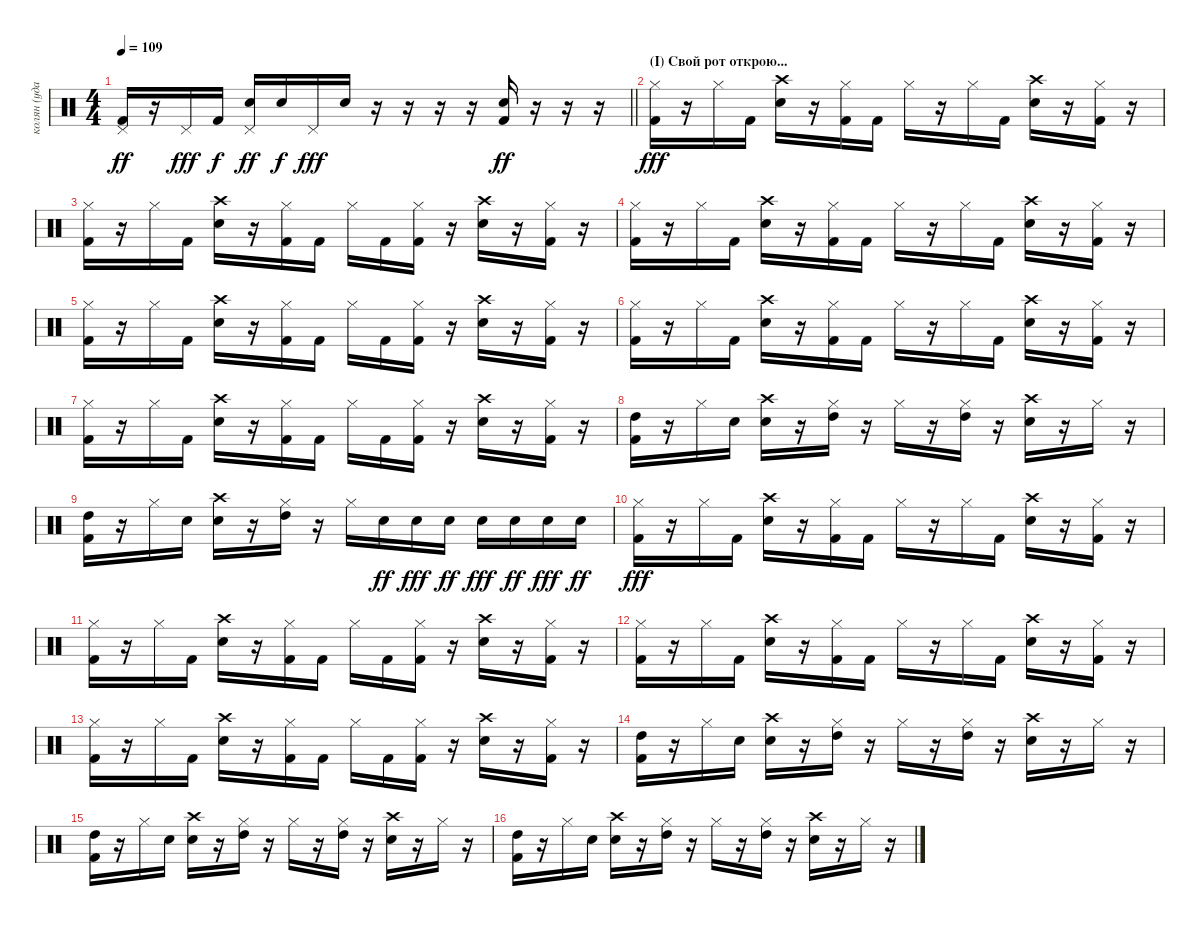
\track ("колян (ударные) v2.0" "колян (уда") {instrument percussion}
\staff
\articulation defaults
\ts (4 4)
\tempo 109
\clef neutral
\barLineRight lightlight
\ks c
("Pedal Hi-Hat (hit)" "Kick (hit) 2").16{dy ff} r.16 "Pedal Hi-Hat (hit)".16{dy fff} "Kick (hit) 2".16{dy f} ("Snare (hit) 2" "Pedal Hi-Hat (hit)").16{dy ff} "Snare (hit) 2".16{dy f} "Pedal Hi-Hat (hit)".16{dy fff} "Snare (hit) 2".16 r.16 r.16 r.16 r.16 ("Snare (hit) 2" "Kick (hit) 2").16{dy ff} r.16 r.16 r.16 |
\section ("" "(I) Свой рот открою...")
("Hi-Hat (closed)" "Kick (hit) 2").16{dy fff} r.16 "Hi-Hat (closed)".16 "Kick (hit) 2".16 ("Snare (hit) 2" "Crash high (hit)").16 r.16 ("Hi-Hat (closed)" "Kick (hit) 2").16 "Kick (hit) 2".16 "Hi-Hat (closed)".16 r.16 "Hi-Hat (closed)".16 "Kick (hit) 2".16 ("Snare (hit) 2" "Crash high (hit)").16 r.16 ("Hi-Hat (closed)" "Kick (hit) 2").16 r.16 |
("Hi-Hat (closed)" "Kick (hit) 2").16 r.16 "Hi-Hat (closed)".16 "Kick (hit) 2".16 ("Snare (hit) 2" "Crash high (hit)").16 r.16 ("Hi-Hat (closed)" "Kick (hit) 2").16 "Kick (hit) 2".16 "Hi-Hat (closed)".16 "Kick (hit) 2".16 ("Hi-Hat (closed)" "Kick (hit) 2").16 r.16 ("Snare (hit) 2" "Crash high (hit)").16 r.16 ("Hi-Hat (closed)" "Kick (hit) 2").16 r.16 |
("Hi-Hat (closed)" "Kick (hit) 2").16 r.16 "Hi-Hat (closed)".16 "Kick (hit) 2".16 ("Snare (hit) 2" "Crash high (hit)").16 r.16 ("Hi-Hat (closed)" "Kick (hit) 2").16 "Kick (hit) 2".16 "Hi-Hat (closed)".16 r.16 "Hi-Hat (closed)".16 "Kick (hit) 2".16 ("Snare (hit) 2" "Crash high (hit)").16 r.16 ("Hi-Hat (closed)" "Kick (hit) 2").16 r.16 |
("Hi-Hat (closed)" "Kick (hit) 2").16 r.16 "Hi-Hat (closed)".16 "Kick (hit) 2".16 ("Snare (hit) 2" "Crash high (hit)").16 r.16 ("Hi-Hat (closed)" "Kick (hit) 2").16 "Kick (hit) 2".16 "Hi-Hat (closed)".16 "Kick (hit) 2".16 ("Hi-Hat (closed)" "Kick (hit) 2").16 r.16 ("Snare (hit) 2" "Crash high (hit)").16 r.16 ("Hi-Hat (closed)" "Kick (hit) 2").16 r.16 |
("Hi-Hat (closed)" "Kick (hit) 2").16 r.16 "Hi-Hat (closed)".16 "Kick (hit) 2".16 ("Snare (hit) 2" "Crash high (hit)").16 r.16 ("Hi-Hat (closed)" "Kick (hit) 2").16 "Kick (hit) 2".16 "Hi-Hat (closed)".16 r.16 "Hi-Hat (closed)".16 "Kick (hit) 2".16 ("Snare (hit) 2" "Crash high (hit)").16 r.16 ("Hi-Hat (closed)" "Kick (hit) 2").16 r.16 |
("Hi-Hat (closed)" "Kick (hit) 2").16 r.16 "Hi-Hat (closed)".16 "Kick (hit) 2".16 ("Snare (hit) 2" "Crash high (hit)").16 r.16 ("Hi-Hat (closed)" "Kick (hit) 2").16 "Kick (hit) 2".16 "Hi-Hat (closed)".16 "Kick (hit) 2".16 ("Hi-Hat (closed)" "Kick (hit) 2").16 r.16 ("Snare (hit) 2" "Crash high (hit)").16 r.16 ("Hi-Hat (closed)" "Kick (hit) 2").16 r.16 |
("High Tom (hit)" "Kick (hit) 2").16 r.16 "Hi-Hat (closed)".16 "Electric Snare (hit)".16 ("Electric Snare (hit)" "Crash high (hit)").16 r.16 ("Hi-Hat (closed)" "High Tom (hit)").16 r.16 "Hi-Hat (closed)".16 r.16 ("Hi-Hat (closed)" "High Tom (hit)").16 r.16 ("Electric Snare (hit)" "Crash high (hit)").16 r.16 "Hi-Hat (closed)".16 r.16 |
("High Tom (hit)" "Kick (hit) 2").16 r.16 "Hi-Hat (closed)".16 "Electric Snare (hit)".16 ("Electric Snare (hit)" "Crash high (hit)").16 r.16 ("Hi-Hat (closed)" "High Tom (hit)").16 r.16 "Hi-Hat (closed)".16 "Electric Snare (hit)".16{dy ff} "Electric Snare (hit)".16{dy fff} "Electric Snare (hit)".16{dy ff} "Electric Snare (hit)".16{dy fff} "Electric Snare (hit)".16{dy ff} "Electric Snare (hit)".16{dy fff} "Electric Snare (hit)".16{dy ff} |
("Hi-Hat (closed)" "Kick (hit) 2").16{dy fff} r.16 "Hi-Hat (closed)".16 "Kick (hit) 2".16 ("Snare (hit) 2" "Crash high (hit)").16 r.16 ("Hi-Hat (closed)" "Kick (hit) 2").16 "Kick (hit) 2".16 "Hi-Hat (closed)".16 r.16 "Hi-Hat (closed)".16 "Kick (hit) 2".16 ("Snare (hit) 2" "Crash high (hit)").16 r.16 ("Hi-Hat (closed)" "Kick (hit) 2").16 r.16 |
("Hi-Hat (closed)" "Kick (hit) 2").16 r.16 "Hi-Hat (closed)".16 "Kick (hit) 2".16 ("Snare (hit) 2" "Crash high (hit)").16 r.16 ("Hi-Hat (closed)" "Kick (hit) 2").16 "Kick (hit) 2".16 "Hi-Hat (closed)".16 "Kick (hit) 2".16 ("Hi-Hat (closed)" "Kick (hit) 2").16 r.16 ("Snare (hit) 2" "Crash high (hit)").16 r.16 ("Hi-Hat (closed)" "Kick (hit) 2").16 r.16 |
("Hi-Hat (closed)" "Kick (hit) 2").16 r.16 "Hi-Hat (closed)".16 "Kick (hit) 2".16 ("Snare (hit) 2" "Crash high (hit)").16 r.16 ("Hi-Hat (closed)" "Kick (hit) 2").16 "Kick (hit) 2".16 "Hi-Hat (closed)".16 r.16 "Hi-Hat (closed)".16 "Kick (hit) 2".16 ("Snare (hit) 2" "Crash high (hit)").16 r.16 ("Hi-Hat (closed)" "Kick (hit) 2").16 r.16 |
("Hi-Hat (closed)" "Kick (hit) 2").16 r.16 "Hi-Hat (closed)".16 "Kick (hit) 2".16 ("Snare (hit) 2" "Crash high (hit)").16 r.16 ("Hi-Hat (closed)" "Kick (hit) 2").16 "Kick (hit) 2".16 "Hi-Hat (closed)".16 "Kick (hit) 2".16 ("Hi-Hat (closed)" "Kick (hit) 2").16 r.16 ("Snare (hit) 2" "Crash high (hit)").16 r.16 ("Hi-Hat (closed)" "Kick (hit) 2").16 r.16 |
("High Tom (hit)" "Kick (hit) 2").16 r.16 "Hi-Hat (closed)".16 "Electric Snare (hit)".16 ("Electric Snare (hit)" "Crash high (hit)").16 r.16 ("Hi-Hat (closed)" "High Tom (hit)").16 r.16 "Hi-Hat (closed)".16 r.16 ("Hi-Hat (closed)" "High Tom (hit)").16 r.16 ("Electric Snare (hit)" "Crash high (hit)").16 r.16 "Hi-Hat (closed)".16 r.16 |
("High Tom (hit)" "Kick (hit) 2").16 r.16 "Hi-Hat (closed)".16 "Electric Snare (hit)".16 ("Electric Snare (hit)" "Crash high (hit)").16 r.16 ("Hi-Hat (closed)" "High Tom (hit)").16 r.16 "Hi-Hat (closed)".16 r.16 ("Hi-Hat (closed)" "High Tom (hit)").16 r.16 ("Electric Snare (hit)" "Crash high (hit)").16 r.16 "Hi-Hat (closed)".16 r.16 |
("High Tom (hit)" "Kick (hit) 2").16 r.16 "Hi-Hat (closed)".16 "Electric Snare (hit)".16 ("Electric Snare (hit)" "Crash high (hit)").16 r.16 ("Hi-Hat (closed)" "High Tom (hit)").16 r.16 "Hi-Hat (closed)".16 r.16 ("Hi-Hat (closed)" "High Tom (hit)").16 r.16 ("Electric Snare (hit)" "Crash high (hit)").16 r.16 "Hi-Hat (closed)".16 r.16
